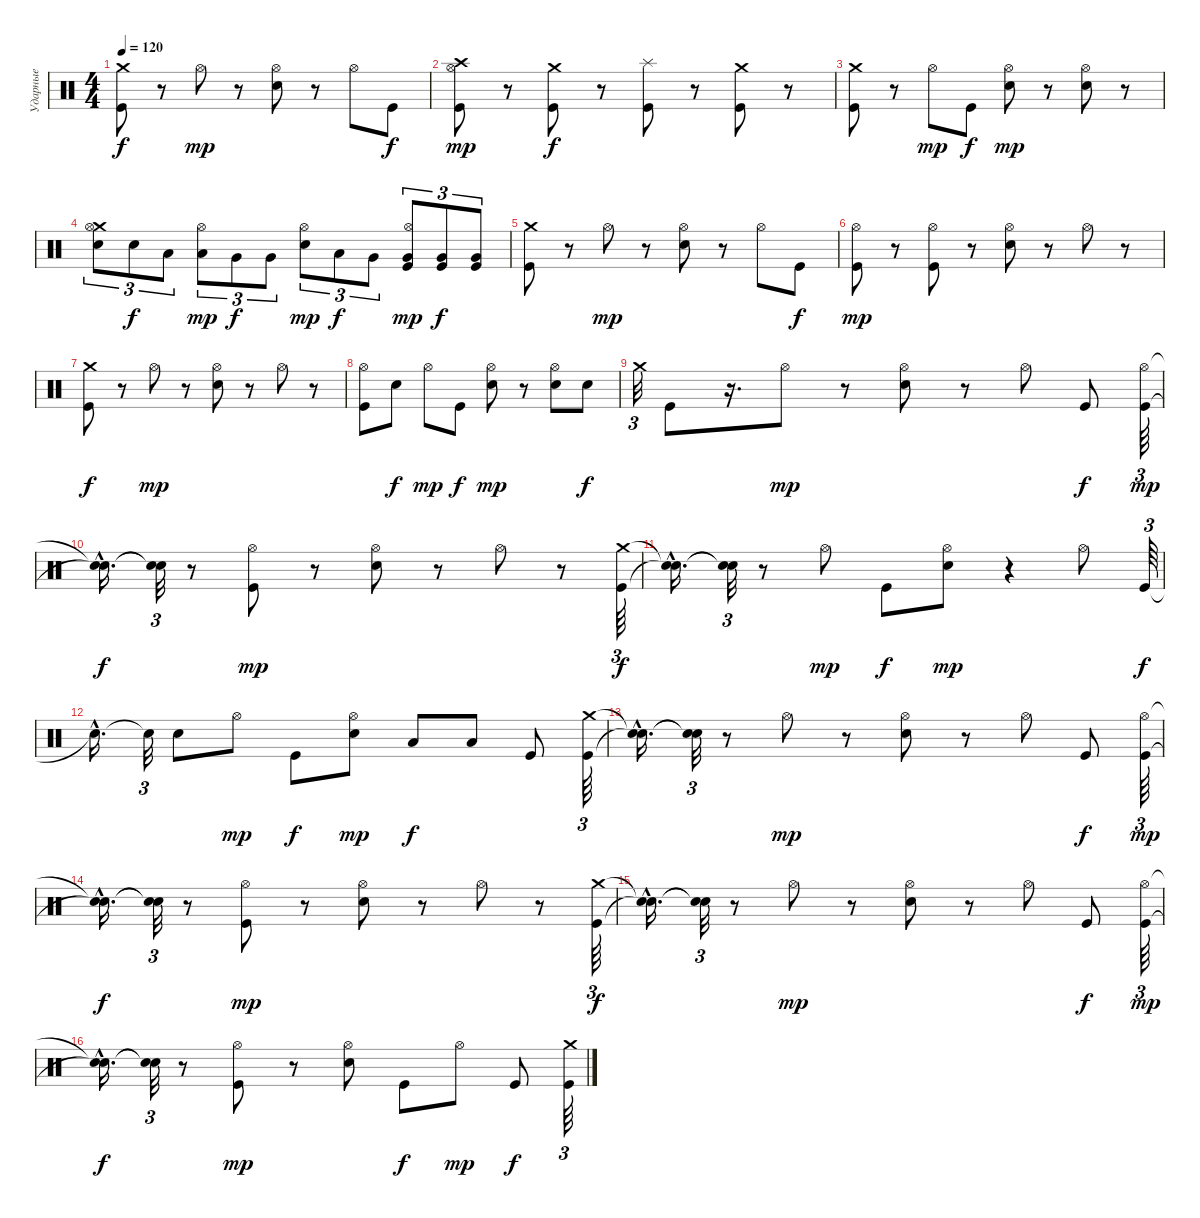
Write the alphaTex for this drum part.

\track ("Ударные" "Ударные") {instrument percussion}
\staff {score}
\articulation defaults
\ts (4 4)
\tempo 120
\clef neutral
\ks c
("Crash medium (hit)" "Kick (hit)").8{dy f} r.8 "Hi-Hat (open)".8{dy mp} r.8 ("Snare (hit) 2" "Hi-Hat (open)").8 r.8 "Hi-Hat (open)".8 "Kick (hit)".8{dy f} |
("Crash high (hit)" "Kick (hit)" "Hi-Hat (open)").8{dy mp} r.8 ("Crash medium (hit)" "Kick (hit)").8{dy f} r.8 ("Splash (hit)" "Kick (hit)").8 r.8 ("Crash medium (hit)" "Kick (hit)").8 r.8 |
("Crash medium (hit)" "Kick (hit)").8 r.8 "Hi-Hat (open)".8{dy mp} "Kick (hit)".8{dy f} ("Snare (hit) 2" "Hi-Hat (open)").8{dy mp} r.8 ("Snare (hit) 2" "Hi-Hat (open)").8 r.8 |
("Snare (hit) 2" "Crash medium (hit)" "Hi-Hat (open)").8{tu (3 2)} "Snare (hit) 2".8{tu (3 2) dy f} "Low Tom (hit)".8{tu (3 2)} ("Low Tom (hit)" "Hi-Hat (open)").8{tu (3 2) dy mp} "Very Low Tom (hit)".8{tu (3 2) dy f} "Very Low Tom (hit)".8{tu (3 2)} ("Snare (hit) 2" "Hi-Hat (open)").8{tu (3 2) dy mp} "Low Tom (hit)".8{tu (3 2) dy f} "Very Low Tom (hit)".8{tu (3 2)} ("Very Low Tom (hit)" "Kick (hit)" "Hi-Hat (open)").8{tu (3 2) dy mp} ("Kick (hit)" "Very Low Tom (hit)").8{tu (3 2) dy f} ("Very Low Tom (hit)" "Kick (hit)").8{tu (3 2)} |
("Crash medium (hit)" "Kick (hit)").8 r.8 "Hi-Hat (open)".8{dy mp} r.8 ("Snare (hit) 2" "Hi-Hat (open)").8 r.8 "Hi-Hat (open)".8 "Kick (hit)".8{dy f} |
("Kick (hit)" "Hi-Hat (open)").8{dy mp} r.8 ("Kick (hit)" "Hi-Hat (open)").8 r.8 ("Snare (hit) 2" "Hi-Hat (open)").8 r.8 "Hi-Hat (open)".8 r.8 |
("Crash medium (hit)" "Kick (hit)").8{dy f} r.8 "Hi-Hat (open)".8{dy mp} r.8 ("Snare (hit) 2" "Hi-Hat (open)").8 r.8 "Hi-Hat (open)".8 r.8 |
("Kick (hit)" "Hi-Hat (open)").8 "Snare (hit) 2".8{dy f} "Hi-Hat (open)".8{dy mp} "Kick (hit)".8{dy f} ("Snare (hit) 2" "Hi-Hat (open)").8{dy mp} r.8 ("Snare (hit) 2" "Hi-Hat (open)").8 "Snare (hit) 2".8{dy f} |
"Crash medium (hit)".32{tu (3 2)} "Kick (hit)".8 r.16{d} "Hi-Hat (open)".8{dy mp} r.8 ("Snare (hit) 2" "Hi-Hat (open)").8 r.8 "Hi-Hat (open)".8 "Kick (hit)".8{dy f} ("Kick (hit)" "Hi-Hat (open)").64{tu (3 2) dy mp} |
("Snare (hit)"{hac t} "Snare (hit)"{hac t}).16{d dy f} ("Snare (hit)"{t} "Snare (hit)"{t}).32{tu (3 2)} r.8 ("Kick (hit)" "Hi-Hat (open)").8{dy mp} r.8 ("Snare (hit) 2" "Hi-Hat (open)").8 r.8 "Hi-Hat (open)".8 r.8 ("Crash medium (hit)" "Kick (hit)").64{tu (3 2) dy f} |
("Snare (hit)"{hac t} "Snare (hit)"{hac t}).16{d} ("Snare (hit)"{t} "Snare (hit)"{t}).32{tu (3 2)} r.8 "Hi-Hat (open)".8{dy mp} "Kick (hit)".8{dy f} ("Snare (hit) 2" "Hi-Hat (open)").8{dy mp} r.4 "Hi-Hat (open)".8 "Kick (hit)".64{tu (3 2) dy f} |
"Snare (hit)"{hac t}.16{d} "Snare (hit)"{t}.32{tu (3 2)} "Snare (hit) 2".8 "Hi-Hat (open)".8{dy mp} "Kick (hit)".8{dy f} ("Snare (hit) 2" "Hi-Hat (open)").8{dy mp} "Low Floor Tom (hit)".8{dy f} "Low Floor Tom (hit)".8 "Kick (hit)".8 ("Crash medium (hit)" "Kick (hit)").64{tu (3 2)} |
("Snare (hit)"{hac t} "Snare (hit)"{hac t}).16{d} ("Snare (hit)"{t} "Snare (hit)"{t}).32{tu (3 2)} r.8 "Hi-Hat (open)".8{dy mp} r.8 ("Snare (hit) 2" "Hi-Hat (open)").8 r.8 "Hi-Hat (open)".8 "Kick (hit)".8{dy f} ("Kick (hit)" "Hi-Hat (open)").64{tu (3 2) dy mp} |
("Snare (hit)"{hac t} "Snare (hit)"{hac t}).16{d dy f} ("Snare (hit)"{t} "Snare (hit)"{t}).32{tu (3 2)} r.8 ("Kick (hit)" "Hi-Hat (open)").8{dy mp} r.8 ("Snare (hit) 2" "Hi-Hat (open)").8 r.8 "Hi-Hat (open)".8 r.8 ("Crash medium (hit)" "Kick (hit)").64{tu (3 2) dy f} |
("Snare (hit)"{hac t} "Snare (hit)"{hac t}).16{d} ("Snare (hit)"{t} "Snare (hit)"{t}).32{tu (3 2)} r.8 "Hi-Hat (open)".8{dy mp} r.8 ("Snare (hit) 2" "Hi-Hat (open)").8 r.8 "Hi-Hat (open)".8 "Kick (hit)".8{dy f} ("Kick (hit)" "Hi-Hat (open)").64{tu (3 2) dy mp} |
("Snare (hit)"{hac t} "Snare (hit)"{hac t}).16{d dy f} ("Snare (hit)"{t} "Snare (hit)"{t}).32{tu (3 2)} r.8 ("Kick (hit)" "Hi-Hat (open)").8{dy mp} r.8 ("Snare (hit) 2" "Hi-Hat (open)").8 "Kick (hit)".8{dy f} "Hi-Hat (open)".8{dy mp} "Kick (hit)".8{dy f} ("Crash medium (hit)" "Kick (hit)").64{tu (3 2)}
